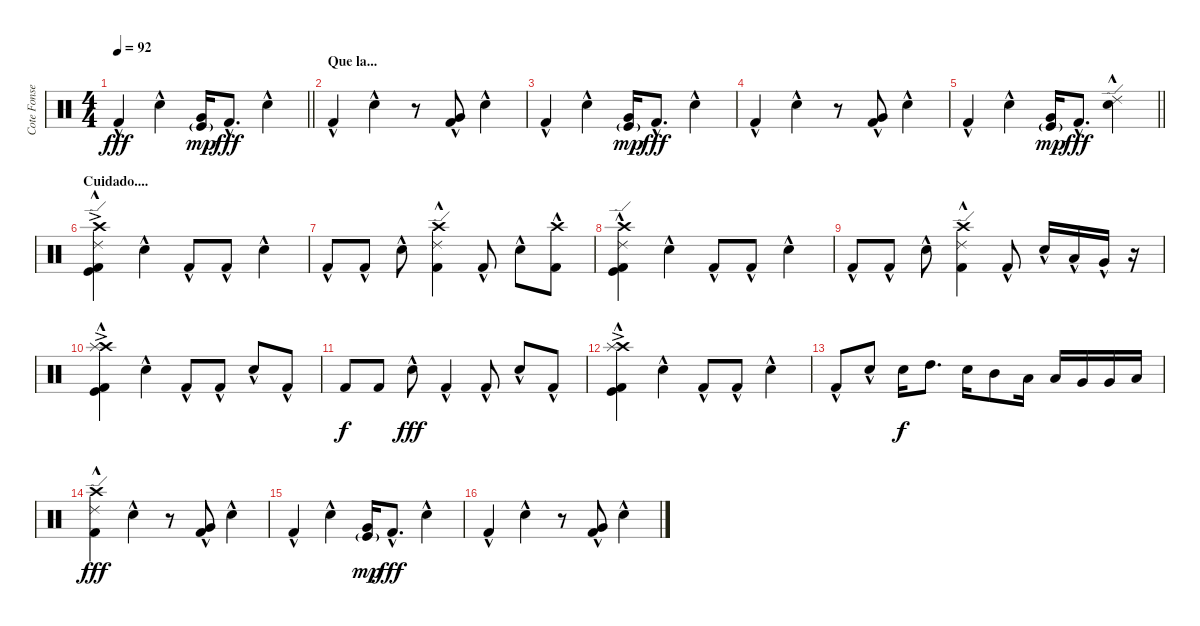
\track ("Cote Fonsea" "Cote Fonse") {instrument percussion}
\staff {score}
\articulation defaults
\ts (4 4)
\tempo 92
\clef neutral
\barLineRight lightlight
\ks c "Kick (hit) 2"{hac}.4{dy fff} "Snare (hit) 2"{hac}.4
("Very Low Tom (hit)" "Kick (hit)"{g}).16{dy mp} "Kick (hit) 2"{hac}.8{d dy fff} "Snare (hit) 2"{hac}.4 |
\section ("" "Que la...")
"Kick (hit) 2"{hac}.4 "Snare (hit) 2"{hac}.4 r.8 ("Kick (hit) 2"{hac} "Very Low Tom (hit)"{hac}).8 "Snare (hit) 2"{hac}.4 |
"Kick (hit) 2"{hac}.4 "Snare (hit) 2"{hac}.4 ("Very Low Tom (hit)" "Kick (hit)"{g}).16{dy mp} "Kick (hit) 2"{hac}.8{d dy fff} "Snare (hit) 2"{hac}.4 |
"Kick (hit) 2"{hac}.4 "Snare (hit) 2"{hac}.4 r.8 ("Kick (hit) 2"{hac} "Very Low Tom (hit)"{hac}).8 "Snare (hit) 2"{hac}.4 |
\barLineRight lightlight "Kick (hit) 2"{hac}.4 "Snare (hit) 2"{hac}.4
("Very Low Tom (hit)" "Kick (hit)"{g}).16{dy mp} "Kick (hit) 2"{hac}.8{d dy fff} ("Ride (edge) 2" "Snare (hit) 2"{hac}).4 |
\section ("" "Cuidado....")
("Ride (edge) 2"{ac} "Crash high (hit)"{ac} "Kick (hit) 2"{hac} "Kick (hit)"{hac}).4 "Snare (hit) 2"{hac}.4 "Kick (hit) 2"{hac}.8 "Kick (hit) 2"{hac}.8 "Snare (hit) 2"{hac}.4 |
"Kick (hit) 2"{hac}.8 "Kick (hit) 2"{hac}.8 "Snare (hit) 2"{hac}.8 ("Ride (edge) 2" "Crash high (hit)" "Kick (hit) 2"{hac}).4 "Kick (hit) 2"{hac}.8 "Snare (hit) 2"{hac}.8 ("Crash high (hit)" "Kick (hit) 2"{hac}).8 |
("Crash high (hit)"{hac} "Ride (edge) 2"{hac} "Kick (hit) 2"{hac} "Kick (hit)"{hac}).4 "Snare (hit) 2"{hac}.4 "Kick (hit) 2"{hac}.8 "Kick (hit) 2"{hac}.8 "Snare (hit) 2"{hac}.4 |
"Kick (hit) 2"{hac}.8 "Kick (hit) 2"{hac}.8 "Snare (hit) 2"{hac}.8 ("Ride (edge) 2" "Crash high (hit)" "Kick (hit) 2"{hac}).4 "Kick (hit) 2"{hac}.8 "Snare (hit) 2"{hac}.16 "Low Tom (hit)"{hac}.16 "Very Low Tom (hit)"{hac}.16 r.16 |
("Crash high (hit)"{ac} "Splash (hit)" "Kick (hit) 2"{hac} "Kick (hit)"{hac}).4 "Snare (hit) 2"{hac}.4 "Kick (hit) 2"{hac}.8 "Kick (hit) 2"{hac}.8 "Snare (hit) 2"{hac}.8 "Kick (hit) 2"{hac}.8 |
"Kick (hit) 2".8{dy f} "Kick (hit) 2".8 "Snare (hit) 2"{hac}.8{dy fff} "Kick (hit) 2"{hac}.4 "Kick (hit) 2"{hac}.8 "Snare (hit) 2"{hac}.8 "Kick (hit) 2"{hac}.8 |
("Crash high (hit)"{ac} "Splash (hit)" "Kick (hit) 2"{hac} "Kick (hit)"{hac}).4 "Snare (hit) 2"{hac}.4 "Kick (hit) 2"{hac}.8 "Kick (hit) 2"{hac}.8 "Snare (hit) 2"{hac}.4 |
"Kick (hit) 2"{hac}.8 "Snare (hit) 2"{hac}.8 "Snare (hit) 2".16{dy f} "High Tom (hit)".8{d} "Snare (hit) 2".16 "Mid Tom (hit)".8 "Low Tom (hit)".16 "Low Tom (hit)".16 "Very Low Tom (hit)".16 "Very Low Tom (hit)".16 "Low Floor Tom (hit)".16 |
("Ride (edge) 2" "Crash high (hit)" "Kick (hit) 2"{hac}).4{dy fff} "Snare (hit) 2"{hac}.4 r.8 ("Kick (hit) 2"{hac} "Very Low Tom (hit)"{hac}).8 "Snare (hit) 2"{hac}.4 |
"Kick (hit) 2"{hac}.4 "Snare (hit) 2"{hac}.4 ("Very Low Tom (hit)" "Kick (hit)"{g}).16{dy mp} "Kick (hit) 2"{hac}.8{d dy fff} "Snare (hit) 2"{hac}.4 |
"Kick (hit) 2"{hac}.4 "Snare (hit) 2"{hac}.4 r.8 ("Kick (hit) 2"{hac} "Very Low Tom (hit)"{hac}).8 "Snare (hit) 2"{hac}.4
